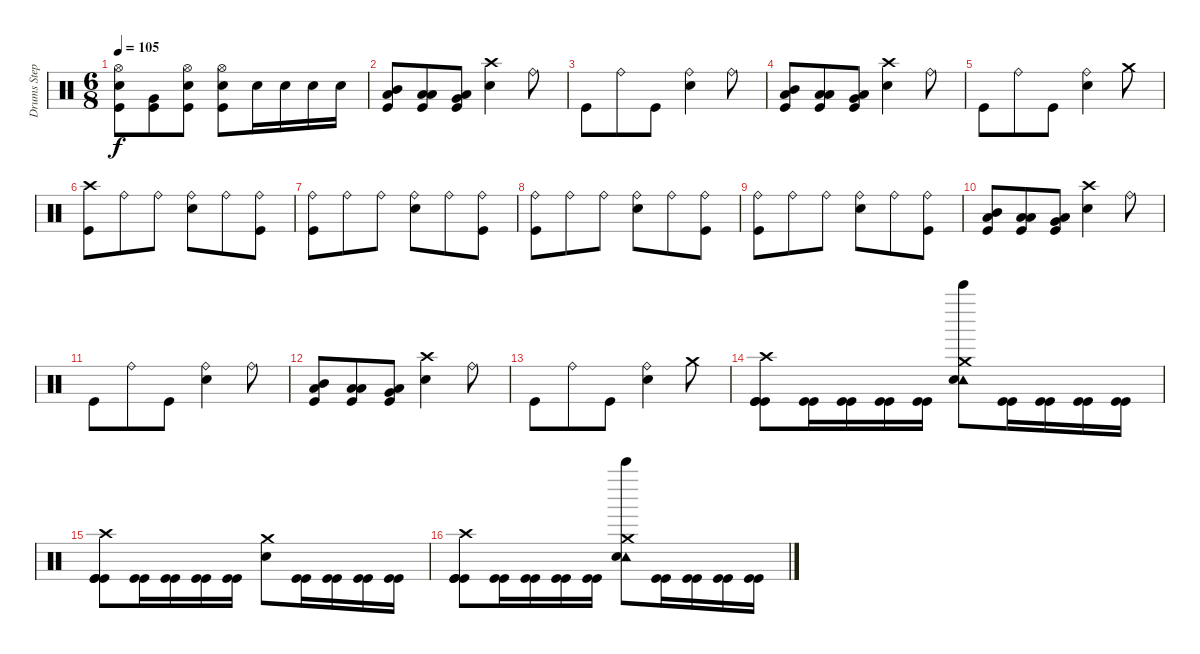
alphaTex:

\track ("Drums Stephen van Haestregt" "Drums Step") {instrument percussion}
\staff {score}
\articulation defaults
\ts (6 8)
\tempo 105
\clef neutral
\ks c
("Kick (hit)" "Snare (hit) 2" "Hi-Hat (open)").8{dy f} ("Kick (hit)" "Very Low Tom (hit)").8 ("Kick (hit)" "Snare (hit) 2" "Hi-Hat (open)").8 ("Kick (hit)" "Snare (hit) 2" "Hi-Hat (open)").8 "Snare (hit) 2".16 "Snare (hit) 2".16 "Snare (hit) 2".16 "Snare (hit) 2".16 |
("Low Floor Tom (hit)" "Kick (hit)" "Mid Tom (hit)").8 ("Low Floor Tom (hit)" "Kick (hit)" "Low Tom (hit)").8 ("Low Floor Tom (hit)" "Kick (hit)" "Very Low Tom (hit)").8 ("Crash high (hit)" "Snare (hit) 2").4 "Ride (bell)".8 |
"Kick (hit)".8 "Ride (bell)".8 "Kick (hit)".8 ("Snare (hit) 2" "Ride (bell)").4 "Ride (bell)".8 |
("Low Floor Tom (hit)" "Kick (hit)" "Mid Tom (hit)").8 ("Low Floor Tom (hit)" "Kick (hit)" "Low Tom (hit)").8 ("Low Floor Tom (hit)" "Kick (hit)" "Very Low Tom (hit)").8 ("Crash high (hit)" "Snare (hit) 2").4 "Ride (bell)".8 |
"Kick (hit)".8 "Ride (bell)".8 "Kick (hit)".8 ("Snare (hit) 2" "Ride (bell)").4 "Crash medium (hit)".8 |
("Kick (hit)" "Crash high (hit)").8 "Ride (bell)".8 "Ride (bell)".8 ("Snare (hit) 2" "Ride (bell)").8 "Ride (bell)".8 ("Kick (hit)" "Ride (bell)").8 |
("Kick (hit)" "Ride (bell)").8 "Ride (bell)".8 "Ride (bell)".8 ("Snare (hit) 2" "Ride (bell)").8 "Ride (bell)".8 ("Kick (hit)" "Ride (bell)").8 |
("Kick (hit)" "Ride (bell)").8 "Ride (bell)".8 "Ride (bell)".8 ("Snare (hit) 2" "Ride (bell)").8 "Ride (bell)".8 ("Kick (hit)" "Ride (bell)").8 |
("Kick (hit)" "Ride (bell)").8 "Ride (bell)".8 "Ride (bell)".8 ("Snare (hit) 2" "Ride (bell)").8 "Ride (bell)".8 ("Kick (hit)" "Ride (bell)").8 |
("Low Floor Tom (hit)" "Kick (hit)" "Mid Tom (hit)").8 ("Low Floor Tom (hit)" "Kick (hit)" "Low Tom (hit)").8 ("Low Floor Tom (hit)" "Kick (hit)" "Very Low Tom (hit)").8 ("Crash high (hit)" "Snare (hit) 2").4 "Ride (bell)".8 |
"Kick (hit)".8 "Ride (bell)".8 "Kick (hit)".8 ("Snare (hit) 2" "Ride (bell)").4 "Ride (bell)".8 |
("Low Floor Tom (hit)" "Kick (hit)" "Mid Tom (hit)").8 ("Low Floor Tom (hit)" "Kick (hit)" "Low Tom (hit)").8 ("Low Floor Tom (hit)" "Kick (hit)" "Very Low Tom (hit)").8 ("Crash high (hit)" "Snare (hit) 2").4 "Ride (bell)".8 |
"Kick (hit)".8 "Ride (bell)".8 "Kick (hit)".8 ("Snare (hit) 2" "Ride (bell)").4 "Crash medium (hit)".8 |
("Kick (hit)" "Kick (hit)" "Kick (hit)" "Crash high (hit)").8 ("Kick (hit)" "Kick (hit)").16 ("Kick (hit)" "Kick (hit)").16 ("Kick (hit)" "Kick (hit)").16 ("Kick (hit)" "Kick (hit)").16 ("Tambourine (hit)" "Bell Tree (hit)" "Snare (hit) 2" "Crash medium (hit)").8 ("Kick (hit)" "Kick (hit)").16 ("Kick (hit)" "Kick (hit)").16 ("Kick (hit)" "Kick (hit)").16 ("Kick (hit)" "Kick (hit)").16 |
("Kick (hit)" "Kick (hit)" "Kick (hit)" "Crash high (hit)").8 ("Kick (hit)" "Kick (hit)").16 ("Kick (hit)" "Kick (hit)").16 ("Kick (hit)" "Kick (hit)").16 ("Kick (hit)" "Kick (hit)").16 ("Snare (hit) 2" "Crash medium (hit)").8 ("Kick (hit)" "Kick (hit)").16 ("Kick (hit)" "Kick (hit)").16 ("Kick (hit)" "Kick (hit)").16 ("Kick (hit)" "Kick (hit)").16 |
("Kick (hit)" "Kick (hit)" "Kick (hit)" "Crash high (hit)").8 ("Kick (hit)" "Kick (hit)").16 ("Kick (hit)" "Kick (hit)").16 ("Kick (hit)" "Kick (hit)").16 ("Kick (hit)" "Kick (hit)").16 ("Bell Tree (hit)" "Tambourine (hit)" "Snare (hit) 2" "Crash medium (hit)").8 ("Kick (hit)" "Kick (hit)").16 ("Kick (hit)" "Kick (hit)").16 ("Kick (hit)" "Kick (hit)").16 ("Kick (hit)" "Kick (hit)").16
